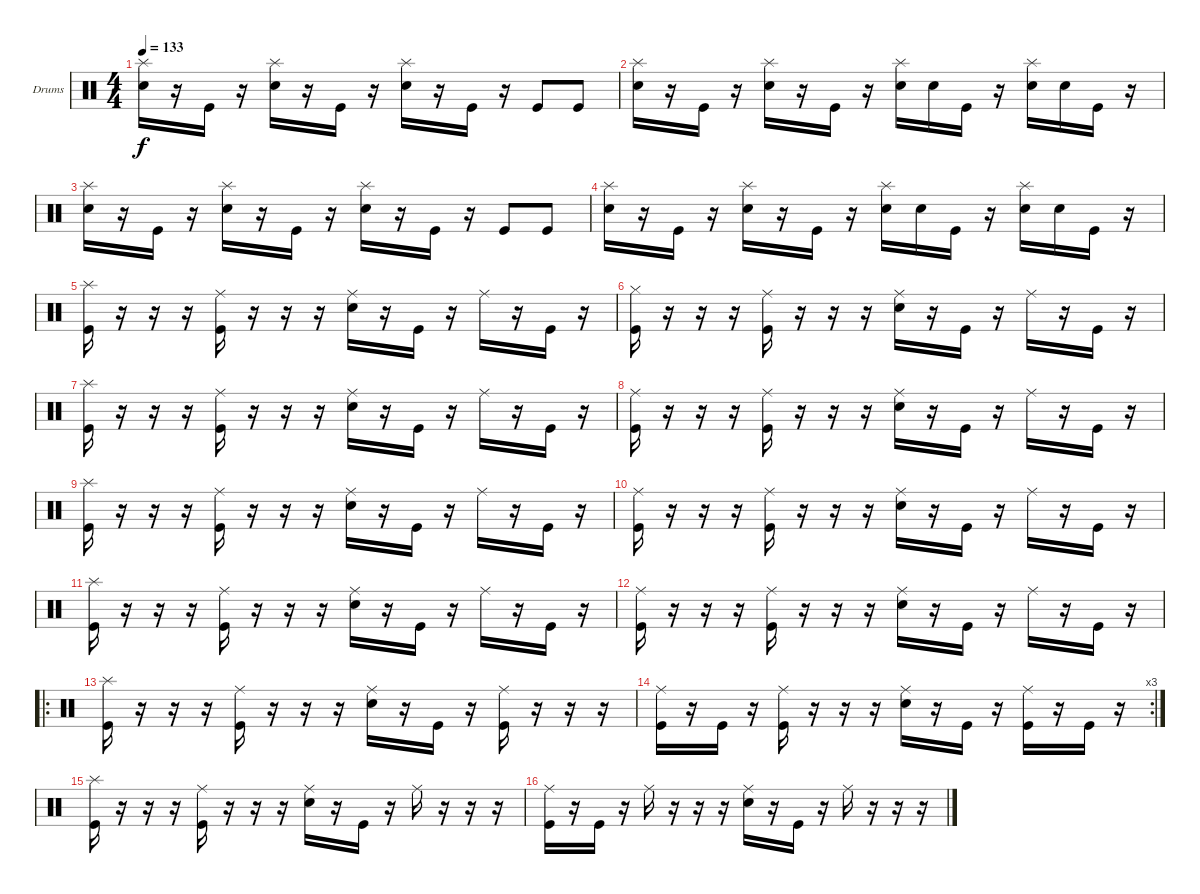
\bracketExtendMode groupsimilarinstruments
\firstSystemTrackNameOrientation horizontal
\otherSystemsTrackNameOrientation horizontal
\track ("Drumkit" "Drums") {instrument percussion}
\staff {score}
\articulation defaults
\ts (4 4)
\tempo 133
\clef neutral
\ks c
("Splash (hit)" "Snare (hit) 2").16{dy f} r.16 "Kick (hit)".16 r.16 ("Splash (hit)" "Snare (hit) 2").16 r.16 "Kick (hit)".16 r.16 ("Splash (hit)" "Snare (hit) 2").16 r.16 "Kick (hit)".16 r.16 "Kick (hit)".8 "Kick (hit)".8 |
("Splash (hit)" "Snare (hit) 2").16 r.16 "Kick (hit)".16 r.16 ("Splash (hit)" "Snare (hit) 2").16 r.16 "Kick (hit)".16 r.16 ("Splash (hit)" "Snare (hit) 2").16 "Snare (hit) 2".16 "Kick (hit)".16 r.16 ("Splash (hit)" "Snare (hit) 2").16 "Snare (hit) 2".16 "Kick (hit)".16 r.16 |
("Splash (hit)" "Snare (hit) 2").16 r.16 "Kick (hit)".16 r.16 ("Splash (hit)" "Snare (hit) 2").16 r.16 "Kick (hit)".16 r.16 ("Splash (hit)" "Snare (hit) 2").16 r.16 "Kick (hit)".16 r.16 "Kick (hit)".8 "Kick (hit)".8 |
("Splash (hit)" "Snare (hit) 2").16 r.16 "Kick (hit)".16 r.16 ("Splash (hit)" "Snare (hit) 2").16 r.16 "Kick (hit)".16 r.16 ("Splash (hit)" "Snare (hit) 2").16 "Snare (hit) 2".16 "Kick (hit)".16 r.16 ("Splash (hit)" "Snare (hit) 2").16 "Snare (hit) 2".16 "Kick (hit)".16 r.16 |
("Splash (hit)" "Kick (hit)").16 r.16 r.16 r.16 ("Kick (hit)" "Ride (middle)").16 r.16 r.16 r.16 ("Snare (hit) 2" "Ride (middle)").16 r.16 "Kick (hit)".16 r.16 "Ride (middle)".16 r.16 "Kick (hit)".16 r.16 |
("Kick (hit)" "Hi-Hat (closed)").16 r.16 r.16 r.16 ("Kick (hit)" "Ride (middle)").16 r.16 r.16 r.16 ("Snare (hit) 2" "Ride (middle)").16 r.16 "Kick (hit)".16 r.16 "Ride (middle)".16 r.16 "Kick (hit)".16 r.16 |
("Splash (hit)" "Kick (hit)").16 r.16 r.16 r.16 ("Kick (hit)" "Ride (middle)").16 r.16 r.16 r.16 ("Snare (hit) 2" "Ride (middle)").16 r.16 "Kick (hit)".16 r.16 "Ride (middle)".16 r.16 "Kick (hit)".16 r.16 |
("Kick (hit)" "Ride (middle)").16 r.16 r.16 r.16 ("Kick (hit)" "Ride (middle)").16 r.16 r.16 r.16 ("Snare (hit) 2" "Ride (middle)").16 r.16 "Kick (hit)".16 r.16 "Ride (middle)".16 r.16 "Kick (hit)".16 r.16 |
("Splash (hit)" "Kick (hit)").16 r.16 r.16 r.16 ("Kick (hit)" "Ride (middle)").16 r.16 r.16 r.16 ("Snare (hit) 2" "Ride (middle)").16 r.16 "Kick (hit)".16 r.16 "Ride (middle)".16 r.16 "Kick (hit)".16 r.16 |
("Kick (hit)" "Ride (middle)").16 r.16 r.16 r.16 ("Kick (hit)" "Ride (middle)").16 r.16 r.16 r.16 ("Snare (hit) 2" "Ride (middle)").16 r.16 "Kick (hit)".16 r.16 "Ride (middle)".16 r.16 "Kick (hit)".16 r.16 |
("Splash (hit)" "Kick (hit)").16 r.16 r.16 r.16 ("Kick (hit)" "Ride (middle)").16 r.16 r.16 r.16 ("Snare (hit) 2" "Ride (middle)").16 r.16 "Kick (hit)".16 r.16 "Ride (middle)".16 r.16 "Kick (hit)".16 r.16 |
("Kick (hit)" "Ride (middle)").16 r.16 r.16 r.16 ("Kick (hit)" "Ride (middle)").16 r.16 r.16 r.16 ("Snare (hit) 2" "Ride (middle)").16 r.16 "Kick (hit)".16 r.16 "Ride (middle)".16 r.16 "Kick (hit)".16 r.16 |
\ro
("Splash (hit)" "Kick (hit)").16 r.16 r.16 r.16 ("Kick (hit)" "Ride (middle)").16 r.16 r.16 r.16 ("Snare (hit) 2" "Ride (middle)").16 r.16 "Kick (hit)".16 r.16 ("Kick (hit)" "Ride (middle)").16 r.16 r.16 r.16 |
\rc 3
("Kick (hit)" "Ride (middle)").16 r.16 "Kick (hit)".16 r.16 ("Kick (hit)" "Ride (middle)").16 r.16 r.16 r.16 ("Snare (hit) 2" "Ride (middle)").16 r.16 "Kick (hit)".16 r.16 ("Kick (hit)" "Ride (middle)").16 r.16 "Kick (hit)".16 r.16 |
("Splash (hit)" "Kick (hit)").16 r.16 r.16 r.16 ("Kick (hit)" "Ride (middle)").16 r.16 r.16 r.16 ("Snare (hit) 2" "Ride (middle)").16 r.16 "Kick (hit)".16 r.16 "Ride (middle)".16 r.16 r.16 r.16 |
("Kick (hit)" "Ride (middle)").16 r.16 "Kick (hit)".16 r.16 "Ride (middle)".16 r.16 r.16 r.16 ("Snare (hit) 2" "Ride (middle)").16 r.16 "Kick (hit)".16 r.16 "Ride (middle)".16 r.16 r.16 r.16
